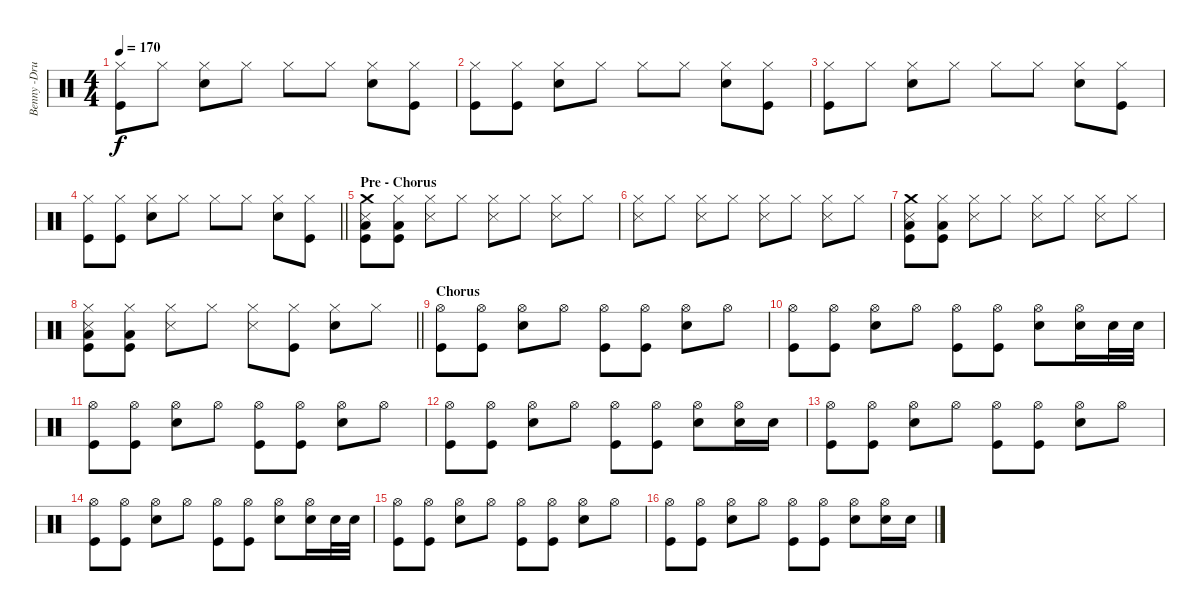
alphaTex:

\track ("Benny -Drums" "Benny -Dru") {instrument percussion}
\staff {score}
\articulation defaults
\ts (4 4)
\tempo 170
\clef neutral
\ks c
("Hi-Hat (closed)" "Kick (hit)").8{dy f} "Hi-Hat (closed)".8 ("Hi-Hat (closed)" "Electric Snare (hit)").8 "Hi-Hat (closed)".8 "Hi-Hat (closed)".8 "Hi-Hat (closed)".8 ("Hi-Hat (closed)" "Electric Snare (hit)").8 ("Hi-Hat (closed)" "Kick (hit)").8 |
("Hi-Hat (closed)" "Kick (hit)").8 ("Hi-Hat (closed)" "Kick (hit)").8 ("Hi-Hat (closed)" "Electric Snare (hit)").8 "Hi-Hat (closed)".8 "Hi-Hat (closed)".8 "Hi-Hat (closed)".8 ("Hi-Hat (closed)" "Electric Snare (hit)").8 ("Hi-Hat (closed)" "Kick (hit)").8 |
("Hi-Hat (closed)" "Kick (hit)").8 "Hi-Hat (closed)".8 ("Hi-Hat (closed)" "Electric Snare (hit)").8 "Hi-Hat (closed)".8 "Hi-Hat (closed)".8 "Hi-Hat (closed)".8 ("Hi-Hat (closed)" "Electric Snare (hit)").8 ("Hi-Hat (closed)" "Kick (hit)").8 |
\barLineRight lightlight
("Hi-Hat (closed)" "Kick (hit)").8 ("Hi-Hat (closed)" "Kick (hit)").8 ("Hi-Hat (closed)" "Electric Snare (hit)").8 "Hi-Hat (closed)".8 "Hi-Hat (closed)".8 "Hi-Hat (closed)".8 ("Hi-Hat (closed)" "Electric Snare (hit)").8 ("Hi-Hat (closed)" "Kick (hit)").8 |
\section ("" "Pre - Chorus")
("Crash medium (hit)" "Snare (side stick) 3" "Low Floor Tom (hit)" "Kick (hit)").8 ("Hi-Hat (closed)" "Low Floor Tom (hit)" "Kick (hit)").8 ("Hi-Hat (closed)" "Snare (side stick) 3").8 "Hi-Hat (closed)".8 ("Hi-Hat (closed)" "Snare (side stick) 3").8 "Hi-Hat (closed)".8 ("Hi-Hat (closed)" "Snare (side stick) 3").8 "Hi-Hat (closed)".8 |
("Hi-Hat (closed)" "Snare (side stick) 3").8 "Hi-Hat (closed)".8 ("Hi-Hat (closed)" "Snare (side stick) 3").8 "Hi-Hat (closed)".8 ("Hi-Hat (closed)" "Snare (side stick) 3").8 "Hi-Hat (closed)".8 ("Hi-Hat (closed)" "Snare (side stick) 3").8 "Hi-Hat (closed)".8 |
("Crash medium (hit)" "Snare (side stick) 3" "Low Floor Tom (hit)" "Kick (hit)").8 ("Hi-Hat (closed)" "Low Floor Tom (hit)" "Kick (hit)").8 ("Hi-Hat (closed)" "Snare (side stick) 3").8 "Hi-Hat (closed)".8 ("Hi-Hat (closed)" "Snare (side stick) 3").8 "Hi-Hat (closed)".8 ("Hi-Hat (closed)" "Snare (side stick) 3").8 "Hi-Hat (closed)".8 |
\barLineRight lightlight
("Hi-Hat (closed)" "Snare (side stick) 3" "Low Floor Tom (hit)" "Kick (hit)").8 ("Hi-Hat (closed)" "Low Floor Tom (hit)" "Kick (hit)").8 ("Hi-Hat (closed)" "Snare (side stick) 3").8 "Hi-Hat (closed)".8 ("Hi-Hat (closed)" "Snare (side stick) 3").8 ("Hi-Hat (closed)" "Kick (hit)").8 ("Hi-Hat (closed)" "Electric Snare (hit)").8 "Hi-Hat (closed)".8 |
\section ("" "Chorus")
("Hi-Hat (open)" "Kick (hit)").8 ("Hi-Hat (open)" "Kick (hit)").8 ("Hi-Hat (open)" "Snare (hit) 2").8 "Hi-Hat (open)".8 ("Hi-Hat (open)" "Kick (hit)").8 ("Hi-Hat (open)" "Kick (hit)").8 ("Hi-Hat (open)" "Snare (hit) 2").8 "Hi-Hat (open)".8 |
("Hi-Hat (open)" "Kick (hit)").8 ("Hi-Hat (open)" "Kick (hit)").8 ("Hi-Hat (open)" "Snare (hit) 2").8 "Hi-Hat (open)".8 ("Hi-Hat (open)" "Kick (hit)").8 ("Hi-Hat (open)" "Kick (hit)").8 ("Hi-Hat (open)" "Snare (hit) 2").8 ("Hi-Hat (open)" "Snare (hit) 2").16 "Snare (hit) 2".32 "Snare (hit) 2".32 |
("Hi-Hat (open)" "Kick (hit)").8 ("Hi-Hat (open)" "Kick (hit)").8 ("Hi-Hat (open)" "Snare (hit) 2").8 "Hi-Hat (open)".8 ("Hi-Hat (open)" "Kick (hit)").8 ("Hi-Hat (open)" "Kick (hit)").8 ("Hi-Hat (open)" "Snare (hit) 2").8 "Hi-Hat (open)".8 |
("Hi-Hat (open)" "Kick (hit)").8 ("Hi-Hat (open)" "Kick (hit)").8 ("Hi-Hat (open)" "Snare (hit) 2").8 "Hi-Hat (open)".8 ("Hi-Hat (open)" "Kick (hit)").8 ("Hi-Hat (open)" "Kick (hit)").8 ("Hi-Hat (open)" "Snare (hit) 2").8 ("Hi-Hat (open)" "Snare (hit) 2").16 "Snare (hit) 2".16 |
("Hi-Hat (open)" "Kick (hit)").8 ("Hi-Hat (open)" "Kick (hit)").8 ("Hi-Hat (open)" "Snare (hit) 2").8 "Hi-Hat (open)".8 ("Hi-Hat (open)" "Kick (hit)").8 ("Hi-Hat (open)" "Kick (hit)").8 ("Hi-Hat (open)" "Snare (hit) 2").8 "Hi-Hat (open)".8 |
("Hi-Hat (open)" "Kick (hit)").8 ("Hi-Hat (open)" "Kick (hit)").8 ("Hi-Hat (open)" "Snare (hit) 2").8 "Hi-Hat (open)".8 ("Hi-Hat (open)" "Kick (hit)").8 ("Hi-Hat (open)" "Kick (hit)").8 ("Hi-Hat (open)" "Snare (hit) 2").8 ("Hi-Hat (open)" "Snare (hit) 2").16 "Snare (hit) 2".32 "Snare (hit) 2".32 |
("Hi-Hat (open)" "Kick (hit)").8 ("Hi-Hat (open)" "Kick (hit)").8 ("Hi-Hat (open)" "Snare (hit) 2").8 "Hi-Hat (open)".8 ("Hi-Hat (open)" "Kick (hit)").8 ("Hi-Hat (open)" "Kick (hit)").8 ("Hi-Hat (open)" "Snare (hit) 2").8 "Hi-Hat (open)".8 |
("Hi-Hat (open)" "Kick (hit)").8 ("Hi-Hat (open)" "Kick (hit)").8 ("Hi-Hat (open)" "Snare (hit) 2").8 "Hi-Hat (open)".8 ("Hi-Hat (open)" "Kick (hit)").8 ("Hi-Hat (open)" "Kick (hit)").8 ("Hi-Hat (open)" "Snare (hit) 2").8 ("Hi-Hat (open)" "Snare (hit) 2").16 "Snare (hit) 2".16
